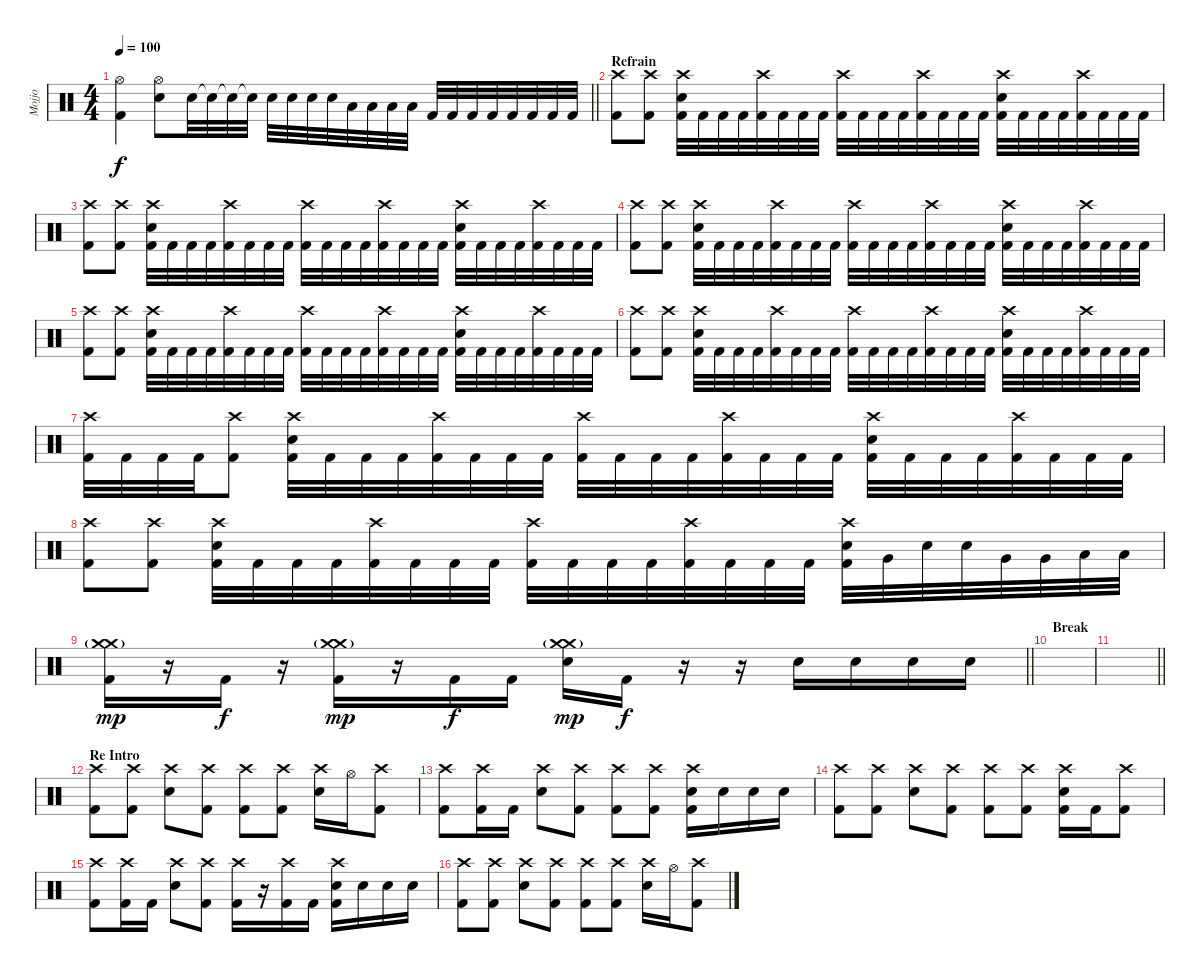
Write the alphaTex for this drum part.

\track ("Mojjo" "Mojjo") {instrument percussion}
\staff {score}
\articulation defaults
\ts (4 4)
\tempo 100
\clef neutral
\barLineRight lightlight
\ks c
("Hi-Hat (open)" "Kick (hit) 2").4{dy f} ("Hi-Hat (open)" "Electric Snare (hit)").8 "Electric Snare (hit)".32 "Electric Snare (hit)"{t}.32 "Electric Snare (hit)"{t}.32 "Electric Snare (hit)"{t}.32 "Electric Snare (hit)".32 "Electric Snare (hit)".32 "Electric Snare (hit)".32 "Electric Snare (hit)".32 "Low Tom (hit)".32 "Low Tom (hit)".32 "Low Tom (hit)".32 "Low Tom (hit)".32 "Kick (hit) 2".32 "Kick (hit) 2".32 "Kick (hit) 2".32 "Kick (hit) 2".32 "Kick (hit) 2".32 "Kick (hit) 2".32 "Kick (hit) 2".32 "Kick (hit) 2".32 |
\section ("" "Refrain")
("Crash high (hit)" "Kick (hit) 2").8 ("Crash high (hit)" "Kick (hit) 2").8 ("Crash high (hit)" "Electric Snare (hit)" "Kick (hit) 2").32 "Kick (hit) 2".32 "Kick (hit) 2".32 "Kick (hit) 2".32 ("Crash high (hit)" "Kick (hit) 2").32 "Kick (hit) 2".32 "Kick (hit) 2".32 "Kick (hit) 2".32 ("Crash high (hit)" "Kick (hit) 2").32 "Kick (hit) 2".32 "Kick (hit) 2".32 "Kick (hit) 2".32 ("Crash high (hit)" "Kick (hit) 2").32 "Kick (hit) 2".32 "Kick (hit) 2".32 "Kick (hit) 2".32 ("Crash high (hit)" "Electric Snare (hit)" "Kick (hit) 2").32 "Kick (hit) 2".32 "Kick (hit) 2".32 "Kick (hit) 2".32 ("Crash high (hit)" "Kick (hit) 2").32 "Kick (hit) 2".32 "Kick (hit) 2".32 "Kick (hit) 2".32 |
("Crash high (hit)" "Kick (hit) 2").8 ("Crash high (hit)" "Kick (hit) 2").8 ("Crash high (hit)" "Electric Snare (hit)" "Kick (hit) 2").32 "Kick (hit) 2".32 "Kick (hit) 2".32 "Kick (hit) 2".32 ("Crash high (hit)" "Kick (hit) 2").32 "Kick (hit) 2".32 "Kick (hit) 2".32 "Kick (hit) 2".32 ("Crash high (hit)" "Kick (hit) 2").32 "Kick (hit) 2".32 "Kick (hit) 2".32 "Kick (hit) 2".32 ("Crash high (hit)" "Kick (hit) 2").32 "Kick (hit) 2".32 "Kick (hit) 2".32 "Kick (hit) 2".32 ("Crash high (hit)" "Electric Snare (hit)" "Kick (hit) 2").32 "Kick (hit) 2".32 "Kick (hit) 2".32 "Kick (hit) 2".32 ("Crash high (hit)" "Kick (hit) 2").32 "Kick (hit) 2".32 "Kick (hit) 2".32 "Kick (hit) 2".32 |
("Crash high (hit)" "Kick (hit) 2").8 ("Crash high (hit)" "Kick (hit) 2").8 ("Crash high (hit)" "Electric Snare (hit)" "Kick (hit) 2").32 "Kick (hit) 2".32 "Kick (hit) 2".32 "Kick (hit) 2".32 ("Crash high (hit)" "Kick (hit) 2").32 "Kick (hit) 2".32 "Kick (hit) 2".32 "Kick (hit) 2".32 ("Crash high (hit)" "Kick (hit) 2").32 "Kick (hit) 2".32 "Kick (hit) 2".32 "Kick (hit) 2".32 ("Crash high (hit)" "Kick (hit) 2").32 "Kick (hit) 2".32 "Kick (hit) 2".32 "Kick (hit) 2".32 ("Crash high (hit)" "Electric Snare (hit)" "Kick (hit) 2").32 "Kick (hit) 2".32 "Kick (hit) 2".32 "Kick (hit) 2".32 ("Crash high (hit)" "Kick (hit) 2").32 "Kick (hit) 2".32 "Kick (hit) 2".32 "Kick (hit) 2".32 |
("Crash high (hit)" "Kick (hit) 2").8 ("Crash high (hit)" "Kick (hit) 2").8 ("Crash high (hit)" "Electric Snare (hit)" "Kick (hit) 2").32 "Kick (hit) 2".32 "Kick (hit) 2".32 "Kick (hit) 2".32 ("Crash high (hit)" "Kick (hit) 2").32 "Kick (hit) 2".32 "Kick (hit) 2".32 "Kick (hit) 2".32 ("Crash high (hit)" "Kick (hit) 2").32 "Kick (hit) 2".32 "Kick (hit) 2".32 "Kick (hit) 2".32 ("Crash high (hit)" "Kick (hit) 2").32 "Kick (hit) 2".32 "Kick (hit) 2".32 "Kick (hit) 2".32 ("Crash high (hit)" "Electric Snare (hit)" "Kick (hit) 2").32 "Kick (hit) 2".32 "Kick (hit) 2".32 "Kick (hit) 2".32 ("Crash high (hit)" "Kick (hit) 2").32 "Kick (hit) 2".32 "Kick (hit) 2".32 "Kick (hit) 2".32 |
("Crash high (hit)" "Kick (hit) 2").8 ("Crash high (hit)" "Kick (hit) 2").8 ("Crash high (hit)" "Electric Snare (hit)" "Kick (hit) 2").32 "Kick (hit) 2".32 "Kick (hit) 2".32 "Kick (hit) 2".32 ("Crash high (hit)" "Kick (hit) 2").32 "Kick (hit) 2".32 "Kick (hit) 2".32 "Kick (hit) 2".32 ("Crash high (hit)" "Kick (hit) 2").32 "Kick (hit) 2".32 "Kick (hit) 2".32 "Kick (hit) 2".32 ("Crash high (hit)" "Kick (hit) 2").32 "Kick (hit) 2".32 "Kick (hit) 2".32 "Kick (hit) 2".32 ("Crash high (hit)" "Electric Snare (hit)" "Kick (hit) 2").32 "Kick (hit) 2".32 "Kick (hit) 2".32 "Kick (hit) 2".32 ("Crash high (hit)" "Kick (hit) 2").32 "Kick (hit) 2".32 "Kick (hit) 2".32 "Kick (hit) 2".32 |
("Crash high (hit)" "Kick (hit) 2").32 "Kick (hit) 2".32 "Kick (hit) 2".32 "Kick (hit) 2".32 ("Crash high (hit)" "Kick (hit) 2").8 ("Crash high (hit)" "Electric Snare (hit)" "Kick (hit) 2").32 "Kick (hit) 2".32 "Kick (hit) 2".32 "Kick (hit) 2".32 ("Crash high (hit)" "Kick (hit) 2").32 "Kick (hit) 2".32 "Kick (hit) 2".32 "Kick (hit) 2".32 ("Crash high (hit)" "Kick (hit) 2").32 "Kick (hit) 2".32 "Kick (hit) 2".32 "Kick (hit) 2".32 ("Crash high (hit)" "Kick (hit) 2").32 "Kick (hit) 2".32 "Kick (hit) 2".32 "Kick (hit) 2".32 ("Crash high (hit)" "Electric Snare (hit)" "Kick (hit) 2").32 "Kick (hit) 2".32 "Kick (hit) 2".32 "Kick (hit) 2".32 ("Crash high (hit)" "Kick (hit) 2").32 "Kick (hit) 2".32 "Kick (hit) 2".32 "Kick (hit) 2".32 |
("Crash high (hit)" "Kick (hit) 2").8 ("Crash high (hit)" "Kick (hit) 2").8 ("Crash high (hit)" "Electric Snare (hit)" "Kick (hit) 2").32 "Kick (hit) 2".32 "Kick (hit) 2".32 "Kick (hit) 2".32 ("Crash high (hit)" "Kick (hit) 2").32 "Kick (hit) 2".32 "Kick (hit) 2".32 "Kick (hit) 2".32 ("Crash high (hit)" "Kick (hit) 2").32 "Kick (hit) 2".32 "Kick (hit) 2".32 "Kick (hit) 2".32 ("Crash high (hit)" "Kick (hit) 2").32 "Kick (hit) 2".32 "Kick (hit) 2".32 "Kick (hit) 2".32 ("Crash high (hit)" "Electric Snare (hit)" "Kick (hit) 2").32 "Very Low Tom (hit)".32 "Electric Snare (hit)".32 "Electric Snare (hit)".32 "Very Low Tom (hit)".32 "Very Low Tom (hit)".32 "Low Floor Tom (hit)".32 "Low Floor Tom (hit)".32 |
\barLineRight lightlight
("Crash medium (hit)"{g} "Crash medium (hit)" "Kick (hit) 2").16{dy mp} r.16 "Kick (hit) 2".16{dy f} r.16 ("Crash medium (hit)"{g} "Crash medium (hit)" "Kick (hit) 2").16{dy mp} r.16 "Kick (hit) 2".16{dy f} "Kick (hit) 2".16 ("Crash medium (hit)"{g} "Crash medium (hit)" "Electric Snare (hit)").16{dy mp} "Kick (hit) 2".16{dy f} r.16 r.16 "Electric Snare (hit)".16 "Electric Snare (hit)".16 "Electric Snare (hit)".16 "Electric Snare (hit)".16 |
\section ("" "Break")
|
\barLineRight lightlight
|
\section ("" "Re Intro")
("Crash high (hit)" "Kick (hit) 2").8 ("Crash high (hit)" "Kick (hit) 2").8 ("Crash high (hit)" "Electric Snare (hit)").8 ("Crash high (hit)" "Kick (hit) 2").8 ("Crash high (hit)" "Kick (hit) 2").8 ("Crash high (hit)" "Kick (hit) 2").8 ("Crash high (hit)" "Electric Snare (hit)").16 "Hi-Hat (open)".16 ("Crash high (hit)" "Kick (hit) 2").8 |
("Crash high (hit)" "Kick (hit) 2").8 ("Crash high (hit)" "Kick (hit) 2").16 "Kick (hit) 2".16 ("Crash high (hit)" "Electric Snare (hit)").8 ("Crash high (hit)" "Kick (hit) 2").8 ("Crash high (hit)" "Kick (hit) 2").8 ("Crash high (hit)" "Kick (hit) 2").8 ("Crash high (hit)" "Electric Snare (hit)" "Kick (hit) 2").16 "Electric Snare (hit)".16 "Electric Snare (hit)".16 "Electric Snare (hit)".16 |
("Crash high (hit)" "Kick (hit) 2").8 ("Crash high (hit)" "Kick (hit) 2").8 ("Crash high (hit)" "Electric Snare (hit)").8 ("Crash high (hit)" "Kick (hit) 2").8 ("Crash high (hit)" "Kick (hit) 2").8 ("Crash high (hit)" "Kick (hit) 2").8 ("Crash high (hit)" "Electric Snare (hit)" "Kick (hit) 2").16 "Kick (hit) 2".16 ("Crash high (hit)" "Kick (hit) 2").8 |
("Crash high (hit)" "Kick (hit) 2").8 ("Crash high (hit)" "Kick (hit) 2").16 "Kick (hit) 2".16 ("Crash high (hit)" "Electric Snare (hit)").8 ("Crash high (hit)" "Kick (hit) 2").8 ("Crash high (hit)" "Kick (hit) 2").16 r.16 ("Crash high (hit)" "Kick (hit) 2").16 "Kick (hit) 2".16 ("Crash high (hit)" "Electric Snare (hit)" "Kick (hit) 2").16 "Electric Snare (hit)".16 "Electric Snare (hit)".16 "Electric Snare (hit)".16 |
("Crash high (hit)" "Kick (hit) 2").8 ("Crash high (hit)" "Kick (hit) 2").8 ("Crash high (hit)" "Electric Snare (hit)").8 ("Crash high (hit)" "Kick (hit) 2").8 ("Crash high (hit)" "Kick (hit) 2").8 ("Crash high (hit)" "Kick (hit) 2").8 ("Crash high (hit)" "Electric Snare (hit)").16 "Hi-Hat (open)".16 ("Crash high (hit)" "Kick (hit) 2").8
